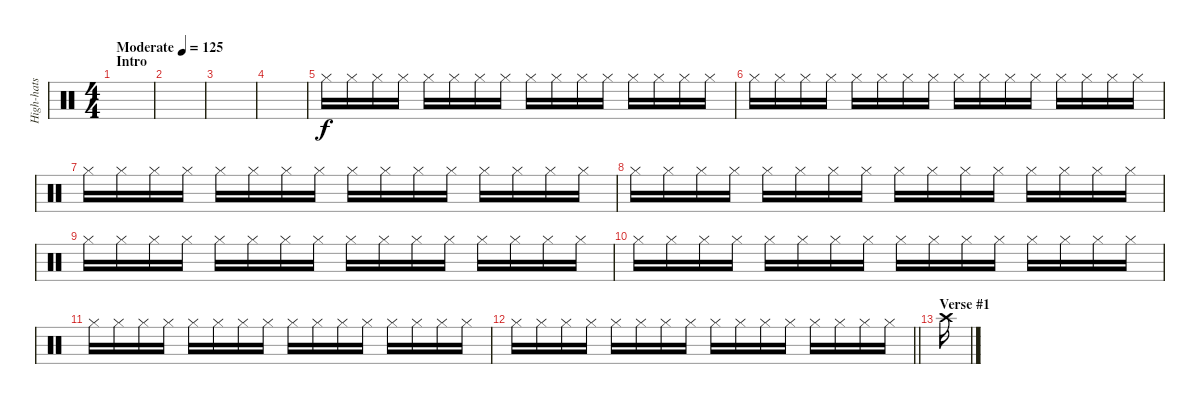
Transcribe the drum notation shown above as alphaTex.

\track ("High-hats" "High-hats") {instrument percussion}
\staff {score}
\articulation defaults
\ts (4 4)
\section ("" "Intro")
\tempo (125 "Moderate")
\clef neutral
\ks c
|
|
|
|
"Hi-Hat (closed)".16 "Hi-Hat (closed)".16 "Hi-Hat (closed)".16 "Hi-Hat (closed)".16 "Hi-Hat (closed)".16 "Hi-Hat (closed)".16 "Hi-Hat (closed)".16 "Hi-Hat (closed)".16 "Hi-Hat (closed)".16 "Hi-Hat (closed)".16 "Hi-Hat (closed)".16 "Hi-Hat (closed)".16 "Hi-Hat (closed)".16 "Hi-Hat (closed)".16 "Hi-Hat (closed)".16 "Hi-Hat (closed)".16 |
"Hi-Hat (closed)".16 "Hi-Hat (closed)".16 "Hi-Hat (closed)".16 "Hi-Hat (closed)".16 "Hi-Hat (closed)".16 "Hi-Hat (closed)".16 "Hi-Hat (closed)".16 "Hi-Hat (closed)".16 "Hi-Hat (closed)".16 "Hi-Hat (closed)".16 "Hi-Hat (closed)".16 "Hi-Hat (closed)".16 "Hi-Hat (closed)".16 "Hi-Hat (closed)".16 "Hi-Hat (closed)".16 "Hi-Hat (closed)".16 |
"Hi-Hat (closed)".16 "Hi-Hat (closed)".16 "Hi-Hat (closed)".16 "Hi-Hat (closed)".16 "Hi-Hat (closed)".16 "Hi-Hat (closed)".16 "Hi-Hat (closed)".16 "Hi-Hat (closed)".16 "Hi-Hat (closed)".16 "Hi-Hat (closed)".16 "Hi-Hat (closed)".16 "Hi-Hat (closed)".16 "Hi-Hat (closed)".16 "Hi-Hat (closed)".16 "Hi-Hat (closed)".16 "Hi-Hat (closed)".16 |
"Hi-Hat (closed)".16 "Hi-Hat (closed)".16 "Hi-Hat (closed)".16 "Hi-Hat (closed)".16 "Hi-Hat (closed)".16 "Hi-Hat (closed)".16 "Hi-Hat (closed)".16 "Hi-Hat (closed)".16 "Hi-Hat (closed)".16 "Hi-Hat (closed)".16 "Hi-Hat (closed)".16 "Hi-Hat (closed)".16 "Hi-Hat (closed)".16 "Hi-Hat (closed)".16 "Hi-Hat (closed)".16 "Hi-Hat (closed)".16 |
"Hi-Hat (closed)".16 "Hi-Hat (closed)".16 "Hi-Hat (closed)".16 "Hi-Hat (closed)".16 "Hi-Hat (closed)".16 "Hi-Hat (closed)".16 "Hi-Hat (closed)".16 "Hi-Hat (closed)".16 "Hi-Hat (closed)".16 "Hi-Hat (closed)".16 "Hi-Hat (closed)".16 "Hi-Hat (closed)".16 "Hi-Hat (closed)".16 "Hi-Hat (closed)".16 "Hi-Hat (closed)".16 "Hi-Hat (closed)".16 |
"Hi-Hat (closed)".16 "Hi-Hat (closed)".16 "Hi-Hat (closed)".16 "Hi-Hat (closed)".16 "Hi-Hat (closed)".16 "Hi-Hat (closed)".16 "Hi-Hat (closed)".16 "Hi-Hat (closed)".16 "Hi-Hat (closed)".16 "Hi-Hat (closed)".16 "Hi-Hat (closed)".16 "Hi-Hat (closed)".16 "Hi-Hat (closed)".16 "Hi-Hat (closed)".16 "Hi-Hat (closed)".16 "Hi-Hat (closed)".16 |
"Hi-Hat (closed)".16 "Hi-Hat (closed)".16 "Hi-Hat (closed)".16 "Hi-Hat (closed)".16 "Hi-Hat (closed)".16 "Hi-Hat (closed)".16 "Hi-Hat (closed)".16 "Hi-Hat (closed)".16 "Hi-Hat (closed)".16 "Hi-Hat (closed)".16 "Hi-Hat (closed)".16 "Hi-Hat (closed)".16 "Hi-Hat (closed)".16 "Hi-Hat (closed)".16 "Hi-Hat (closed)".16 "Hi-Hat (closed)".16 |
\barLineRight lightlight "Hi-Hat (closed)".16 "Hi-Hat (closed)".16 "Hi-Hat (closed)".16 "Hi-Hat (closed)".16 "Hi-Hat (closed)".16 "Hi-Hat (closed)".16 "Hi-Hat (closed)".16 "Hi-Hat (closed)".16 "Hi-Hat (closed)".16 "Hi-Hat (closed)".16 "Hi-Hat (closed)".16 "Hi-Hat (closed)".16 "Hi-Hat (closed)".16 "Hi-Hat (closed)".16 "Hi-Hat (closed)".16 "Hi-Hat (closed)".16
|
\section ("" "Verse #1")
"Crash high (hit)".16
